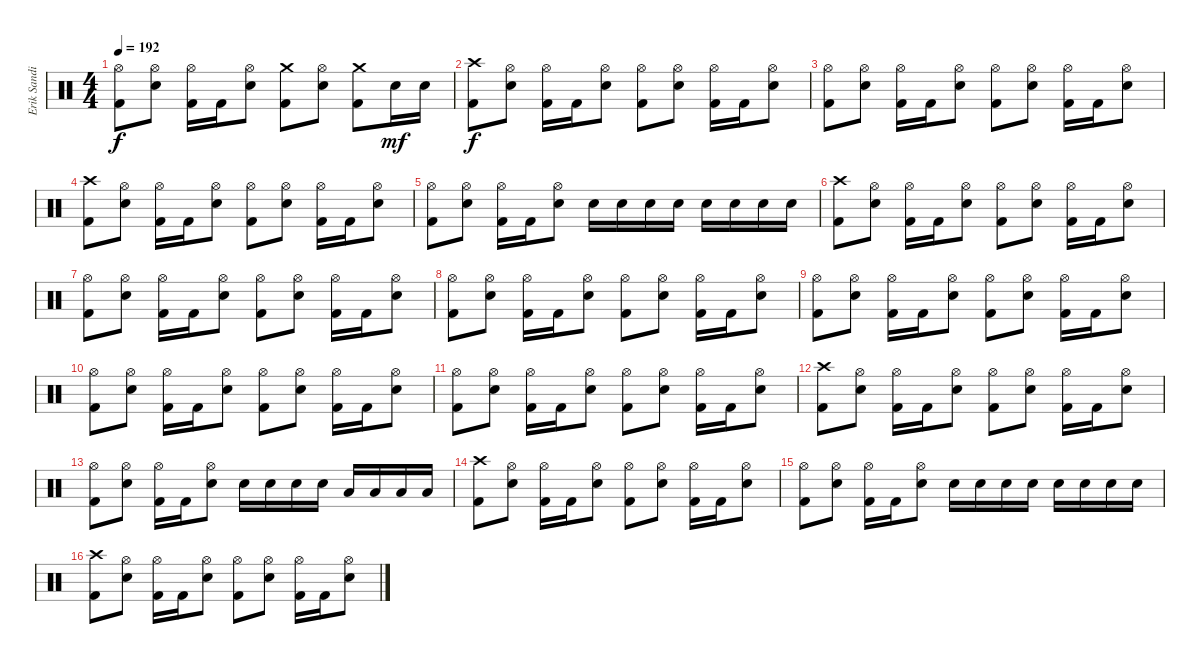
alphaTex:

\track ("Erik Sandin - Drums" "Erik Sandi") {instrument percussion}
\staff {score}
\articulation defaults
\ts (4 4)
\tempo 192
\clef neutral
\ks c
("Hi-Hat (open)" "Kick (hit) 2").8{dy f} ("Hi-Hat (open)" "Electric Snare (hit)").8 ("Hi-Hat (open)" "Kick (hit) 2").16 "Kick (hit) 2".16 ("Hi-Hat (open)" "Electric Snare (hit)").8 ("Crash medium (hit)" "Kick (hit) 2").8 ("Hi-Hat (open)" "Electric Snare (hit)").8 ("Crash medium (hit)" "Kick (hit) 2").8 "Electric Snare (hit)".16{dy mf} "Electric Snare (hit)".16 |
("Crash high (hit)" "Kick (hit) 2").8{dy f} ("Hi-Hat (open)" "Electric Snare (hit)").8 ("Hi-Hat (open)" "Kick (hit) 2").16 "Kick (hit) 2".16 ("Hi-Hat (open)" "Electric Snare (hit)").8 ("Hi-Hat (open)" "Kick (hit) 2").8 ("Hi-Hat (open)" "Electric Snare (hit)").8 ("Hi-Hat (open)" "Kick (hit) 2").16 "Kick (hit) 2".16 ("Hi-Hat (open)" "Electric Snare (hit)").8 |
("Hi-Hat (open)" "Kick (hit) 2").8 ("Hi-Hat (open)" "Electric Snare (hit)").8 ("Hi-Hat (open)" "Kick (hit) 2").16 "Kick (hit) 2".16 ("Hi-Hat (open)" "Electric Snare (hit)").8 ("Hi-Hat (open)" "Kick (hit) 2").8 ("Hi-Hat (open)" "Electric Snare (hit)").8 ("Hi-Hat (open)" "Kick (hit) 2").16 "Kick (hit) 2".16 ("Hi-Hat (open)" "Electric Snare (hit)").8 |
("Crash high (hit)" "Kick (hit) 2").8 ("Hi-Hat (open)" "Electric Snare (hit)").8 ("Hi-Hat (open)" "Kick (hit) 2").16 "Kick (hit) 2".16 ("Hi-Hat (open)" "Electric Snare (hit)").8 ("Hi-Hat (open)" "Kick (hit) 2").8 ("Hi-Hat (open)" "Electric Snare (hit)").8 ("Hi-Hat (open)" "Kick (hit) 2").16 "Kick (hit) 2".16 ("Hi-Hat (open)" "Electric Snare (hit)").8 |
("Hi-Hat (open)" "Kick (hit) 2").8 ("Hi-Hat (open)" "Electric Snare (hit)").8 ("Hi-Hat (open)" "Kick (hit) 2").16 "Kick (hit) 2".16 ("Hi-Hat (open)" "Electric Snare (hit)").8 "Electric Snare (hit)".16 "Electric Snare (hit)".16 "Electric Snare (hit)".16 "Electric Snare (hit)".16 "Electric Snare (hit)".16 "Electric Snare (hit)".16 "Electric Snare (hit)".16 "Electric Snare (hit)".16 |
("Crash high (hit)" "Kick (hit) 2").8 ("Hi-Hat (open)" "Electric Snare (hit)").8 ("Hi-Hat (open)" "Kick (hit) 2").16 "Kick (hit) 2".16 ("Hi-Hat (open)" "Electric Snare (hit)").8 ("Hi-Hat (open)" "Kick (hit) 2").8 ("Hi-Hat (open)" "Electric Snare (hit)").8 ("Hi-Hat (open)" "Kick (hit) 2").16 "Kick (hit) 2".16 ("Hi-Hat (open)" "Electric Snare (hit)").8 |
("Hi-Hat (open)" "Kick (hit) 2").8 ("Hi-Hat (open)" "Electric Snare (hit)").8 ("Hi-Hat (open)" "Kick (hit) 2").16 "Kick (hit) 2".16 ("Hi-Hat (open)" "Electric Snare (hit)").8 ("Hi-Hat (open)" "Kick (hit) 2").8 ("Hi-Hat (open)" "Electric Snare (hit)").8 ("Hi-Hat (open)" "Kick (hit) 2").16 "Kick (hit) 2".16 ("Hi-Hat (open)" "Electric Snare (hit)").8 |
("Hi-Hat (open)" "Kick (hit) 2").8 ("Hi-Hat (open)" "Electric Snare (hit)").8 ("Hi-Hat (open)" "Kick (hit) 2").16 "Kick (hit) 2".16 ("Hi-Hat (open)" "Electric Snare (hit)").8 ("Hi-Hat (open)" "Kick (hit) 2").8 ("Hi-Hat (open)" "Electric Snare (hit)").8 ("Hi-Hat (open)" "Kick (hit) 2").16 "Kick (hit) 2".16 ("Hi-Hat (open)" "Electric Snare (hit)").8 |
("Hi-Hat (open)" "Kick (hit) 2").8 ("Hi-Hat (open)" "Electric Snare (hit)").8 ("Hi-Hat (open)" "Kick (hit) 2").16 "Kick (hit) 2".16 ("Hi-Hat (open)" "Electric Snare (hit)").8 ("Hi-Hat (open)" "Kick (hit) 2").8 ("Hi-Hat (open)" "Electric Snare (hit)").8 ("Hi-Hat (open)" "Kick (hit) 2").16 "Kick (hit) 2".16 ("Hi-Hat (open)" "Electric Snare (hit)").8 |
("Hi-Hat (open)" "Kick (hit) 2").8 ("Hi-Hat (open)" "Electric Snare (hit)").8 ("Hi-Hat (open)" "Kick (hit) 2").16 "Kick (hit) 2".16 ("Hi-Hat (open)" "Electric Snare (hit)").8 ("Hi-Hat (open)" "Kick (hit) 2").8 ("Hi-Hat (open)" "Electric Snare (hit)").8 ("Hi-Hat (open)" "Kick (hit) 2").16 "Kick (hit) 2".16 ("Hi-Hat (open)" "Electric Snare (hit)").8 |
("Hi-Hat (open)" "Kick (hit) 2").8 ("Hi-Hat (open)" "Electric Snare (hit)").8 ("Hi-Hat (open)" "Kick (hit) 2").16 "Kick (hit) 2".16 ("Hi-Hat (open)" "Electric Snare (hit)").8 ("Hi-Hat (open)" "Kick (hit) 2").8 ("Hi-Hat (open)" "Electric Snare (hit)").8 ("Hi-Hat (open)" "Kick (hit) 2").16 "Kick (hit) 2".16 ("Hi-Hat (open)" "Electric Snare (hit)").8 |
("Crash high (hit)" "Kick (hit) 2").8 ("Hi-Hat (open)" "Electric Snare (hit)").8 ("Hi-Hat (open)" "Kick (hit) 2").16 "Kick (hit) 2".16 ("Hi-Hat (open)" "Electric Snare (hit)").8 ("Hi-Hat (open)" "Kick (hit) 2").8 ("Hi-Hat (open)" "Electric Snare (hit)").8 ("Hi-Hat (open)" "Kick (hit) 2").16 "Kick (hit) 2".16 ("Hi-Hat (open)" "Electric Snare (hit)").8 |
("Hi-Hat (open)" "Kick (hit) 2").8 ("Hi-Hat (open)" "Electric Snare (hit)").8 ("Hi-Hat (open)" "Kick (hit) 2").16 "Kick (hit) 2".16 ("Hi-Hat (open)" "Electric Snare (hit)").8 "Electric Snare (hit)".16 "Electric Snare (hit)".16 "Electric Snare (hit)".16 "Electric Snare (hit)".16 "Low Tom (hit)".16 "Low Tom (hit)".16 "Low Tom (hit)".16 "Low Tom (hit)".16 |
("Crash high (hit)" "Kick (hit) 2").8 ("Hi-Hat (open)" "Electric Snare (hit)").8 ("Hi-Hat (open)" "Kick (hit) 2").16 "Kick (hit) 2".16 ("Hi-Hat (open)" "Electric Snare (hit)").8 ("Hi-Hat (open)" "Kick (hit) 2").8 ("Hi-Hat (open)" "Electric Snare (hit)").8 ("Hi-Hat (open)" "Kick (hit) 2").16 "Kick (hit) 2".16 ("Hi-Hat (open)" "Electric Snare (hit)").8 |
("Hi-Hat (open)" "Kick (hit) 2").8 ("Hi-Hat (open)" "Electric Snare (hit)").8 ("Hi-Hat (open)" "Kick (hit) 2").16 "Kick (hit) 2".16 ("Hi-Hat (open)" "Electric Snare (hit)").8 "Electric Snare (hit)".16 "Electric Snare (hit)".16 "Electric Snare (hit)".16 "Electric Snare (hit)".16 "Electric Snare (hit)".16 "Electric Snare (hit)".16 "Electric Snare (hit)".16 "Electric Snare (hit)".16 |
("Crash high (hit)" "Kick (hit) 2").8 ("Hi-Hat (open)" "Electric Snare (hit)").8 ("Hi-Hat (open)" "Kick (hit) 2").16 "Kick (hit) 2".16 ("Hi-Hat (open)" "Electric Snare (hit)").8 ("Hi-Hat (open)" "Kick (hit) 2").8 ("Hi-Hat (open)" "Electric Snare (hit)").8 ("Hi-Hat (open)" "Kick (hit) 2").16 "Kick (hit) 2".16 ("Hi-Hat (open)" "Electric Snare (hit)").8
